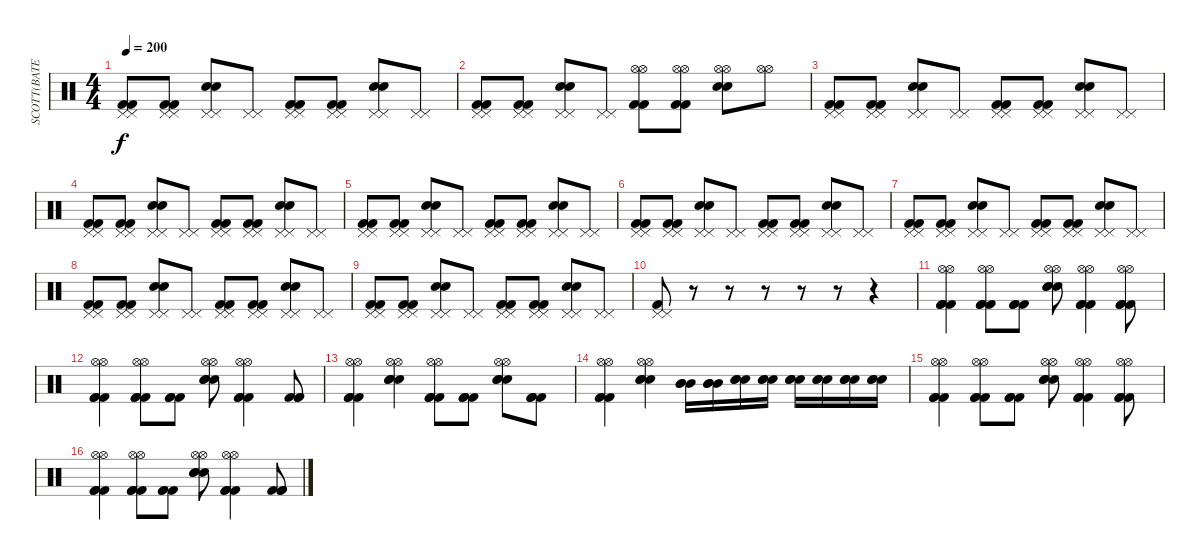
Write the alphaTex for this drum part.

\track ("SCOTT(BATERIA)" "SCOTT(BATE") {instrument percussion}
\staff {score}
\articulation defaults
\ts (4 4)
\tempo 200
\clef neutral
\ks c
("Kick (hit) 2" "Kick (hit) 2" "Pedal Hi-Hat (hit)" "Pedal Hi-Hat (hit)").8{dy f} ("Kick (hit) 2" "Kick (hit) 2" "Pedal Hi-Hat (hit)" "Pedal Hi-Hat (hit)").8 ("Snare (hit) 2" "Snare (hit) 2" "Pedal Hi-Hat (hit)" "Pedal Hi-Hat (hit)").8 ("Pedal Hi-Hat (hit)" "Pedal Hi-Hat (hit)").8 ("Kick (hit) 2" "Kick (hit) 2" "Pedal Hi-Hat (hit)" "Pedal Hi-Hat (hit)").8 ("Kick (hit) 2" "Kick (hit) 2" "Pedal Hi-Hat (hit)" "Pedal Hi-Hat (hit)").8 ("Snare (hit) 2" "Snare (hit) 2" "Pedal Hi-Hat (hit)" "Pedal Hi-Hat (hit)").8 ("Pedal Hi-Hat (hit)" "Pedal Hi-Hat (hit)").8 |
("Kick (hit) 2" "Kick (hit) 2" "Pedal Hi-Hat (hit)" "Pedal Hi-Hat (hit)").8 ("Kick (hit) 2" "Kick (hit) 2" "Pedal Hi-Hat (hit)" "Pedal Hi-Hat (hit)").8 ("Snare (hit) 2" "Snare (hit) 2" "Pedal Hi-Hat (hit)" "Pedal Hi-Hat (hit)").8 ("Pedal Hi-Hat (hit)" "Pedal Hi-Hat (hit)").8 ("Kick (hit) 2" "Kick (hit) 2" "Hi-Hat (open)" "Hi-Hat (open)").8 ("Kick (hit) 2" "Kick (hit) 2" "Hi-Hat (open)" "Hi-Hat (open)").8 ("Snare (hit) 2" "Snare (hit) 2" "Hi-Hat (open)" "Hi-Hat (open)").8 ("Hi-Hat (open)" "Hi-Hat (open)").8 |
("Kick (hit) 2" "Kick (hit) 2" "Pedal Hi-Hat (hit)" "Pedal Hi-Hat (hit)").8 ("Kick (hit) 2" "Kick (hit) 2" "Pedal Hi-Hat (hit)" "Pedal Hi-Hat (hit)").8 ("Snare (hit) 2" "Snare (hit) 2" "Pedal Hi-Hat (hit)" "Pedal Hi-Hat (hit)").8 ("Pedal Hi-Hat (hit)" "Pedal Hi-Hat (hit)").8 ("Kick (hit) 2" "Kick (hit) 2" "Pedal Hi-Hat (hit)" "Pedal Hi-Hat (hit)").8 ("Kick (hit) 2" "Kick (hit) 2" "Pedal Hi-Hat (hit)" "Pedal Hi-Hat (hit)").8 ("Snare (hit) 2" "Snare (hit) 2" "Pedal Hi-Hat (hit)" "Pedal Hi-Hat (hit)").8 ("Pedal Hi-Hat (hit)" "Pedal Hi-Hat (hit)").8 |
("Kick (hit) 2" "Kick (hit) 2" "Pedal Hi-Hat (hit)" "Pedal Hi-Hat (hit)").8 ("Kick (hit) 2" "Kick (hit) 2" "Pedal Hi-Hat (hit)" "Pedal Hi-Hat (hit)").8 ("Snare (hit) 2" "Snare (hit) 2" "Pedal Hi-Hat (hit)" "Pedal Hi-Hat (hit)").8 ("Pedal Hi-Hat (hit)" "Pedal Hi-Hat (hit)").8 ("Kick (hit) 2" "Kick (hit) 2" "Pedal Hi-Hat (hit)" "Pedal Hi-Hat (hit)").8 ("Kick (hit) 2" "Kick (hit) 2" "Pedal Hi-Hat (hit)" "Pedal Hi-Hat (hit)").8 ("Snare (hit) 2" "Snare (hit) 2" "Pedal Hi-Hat (hit)" "Pedal Hi-Hat (hit)").8 ("Pedal Hi-Hat (hit)" "Pedal Hi-Hat (hit)").8 |
("Kick (hit) 2" "Kick (hit) 2" "Pedal Hi-Hat (hit)" "Pedal Hi-Hat (hit)").8 ("Kick (hit) 2" "Kick (hit) 2" "Pedal Hi-Hat (hit)" "Pedal Hi-Hat (hit)").8 ("Snare (hit) 2" "Snare (hit) 2" "Pedal Hi-Hat (hit)" "Pedal Hi-Hat (hit)").8 ("Pedal Hi-Hat (hit)" "Pedal Hi-Hat (hit)").8 ("Kick (hit) 2" "Kick (hit) 2" "Pedal Hi-Hat (hit)" "Pedal Hi-Hat (hit)").8 ("Kick (hit) 2" "Kick (hit) 2" "Pedal Hi-Hat (hit)" "Pedal Hi-Hat (hit)").8 ("Snare (hit) 2" "Snare (hit) 2" "Pedal Hi-Hat (hit)" "Pedal Hi-Hat (hit)").8 ("Pedal Hi-Hat (hit)" "Pedal Hi-Hat (hit)").8 |
("Kick (hit) 2" "Kick (hit) 2" "Pedal Hi-Hat (hit)" "Pedal Hi-Hat (hit)").8 ("Kick (hit) 2" "Kick (hit) 2" "Pedal Hi-Hat (hit)" "Pedal Hi-Hat (hit)").8 ("Snare (hit) 2" "Snare (hit) 2" "Pedal Hi-Hat (hit)" "Pedal Hi-Hat (hit)").8 ("Pedal Hi-Hat (hit)" "Pedal Hi-Hat (hit)").8 ("Kick (hit) 2" "Kick (hit) 2" "Pedal Hi-Hat (hit)" "Pedal Hi-Hat (hit)").8 ("Kick (hit) 2" "Kick (hit) 2" "Pedal Hi-Hat (hit)" "Pedal Hi-Hat (hit)").8 ("Snare (hit) 2" "Snare (hit) 2" "Pedal Hi-Hat (hit)" "Pedal Hi-Hat (hit)").8 ("Pedal Hi-Hat (hit)" "Pedal Hi-Hat (hit)").8 |
("Kick (hit) 2" "Kick (hit) 2" "Pedal Hi-Hat (hit)" "Pedal Hi-Hat (hit)").8 ("Kick (hit) 2" "Kick (hit) 2" "Pedal Hi-Hat (hit)" "Pedal Hi-Hat (hit)").8 ("Snare (hit) 2" "Snare (hit) 2" "Pedal Hi-Hat (hit)" "Pedal Hi-Hat (hit)").8 ("Pedal Hi-Hat (hit)" "Pedal Hi-Hat (hit)").8 ("Kick (hit) 2" "Kick (hit) 2" "Pedal Hi-Hat (hit)" "Pedal Hi-Hat (hit)").8 ("Kick (hit) 2" "Kick (hit) 2" "Pedal Hi-Hat (hit)" "Pedal Hi-Hat (hit)").8 ("Snare (hit) 2" "Snare (hit) 2" "Pedal Hi-Hat (hit)" "Pedal Hi-Hat (hit)").8 ("Pedal Hi-Hat (hit)" "Pedal Hi-Hat (hit)").8 |
("Kick (hit) 2" "Kick (hit) 2" "Pedal Hi-Hat (hit)" "Pedal Hi-Hat (hit)").8 ("Kick (hit) 2" "Kick (hit) 2" "Pedal Hi-Hat (hit)" "Pedal Hi-Hat (hit)").8 ("Snare (hit) 2" "Snare (hit) 2" "Pedal Hi-Hat (hit)" "Pedal Hi-Hat (hit)").8 ("Pedal Hi-Hat (hit)" "Pedal Hi-Hat (hit)").8 ("Kick (hit) 2" "Kick (hit) 2" "Pedal Hi-Hat (hit)" "Pedal Hi-Hat (hit)").8 ("Kick (hit) 2" "Kick (hit) 2" "Pedal Hi-Hat (hit)" "Pedal Hi-Hat (hit)").8 ("Snare (hit) 2" "Snare (hit) 2" "Pedal Hi-Hat (hit)" "Pedal Hi-Hat (hit)").8 ("Pedal Hi-Hat (hit)" "Pedal Hi-Hat (hit)").8 |
("Kick (hit) 2" "Kick (hit) 2" "Pedal Hi-Hat (hit)" "Pedal Hi-Hat (hit)").8 ("Kick (hit) 2" "Kick (hit) 2" "Pedal Hi-Hat (hit)" "Pedal Hi-Hat (hit)").8 ("Snare (hit) 2" "Snare (hit) 2" "Pedal Hi-Hat (hit)" "Pedal Hi-Hat (hit)").8 ("Pedal Hi-Hat (hit)" "Pedal Hi-Hat (hit)").8 ("Kick (hit) 2" "Kick (hit) 2" "Pedal Hi-Hat (hit)" "Pedal Hi-Hat (hit)").8 ("Kick (hit) 2" "Kick (hit) 2" "Pedal Hi-Hat (hit)" "Pedal Hi-Hat (hit)").8 ("Snare (hit) 2" "Snare (hit) 2" "Pedal Hi-Hat (hit)" "Pedal Hi-Hat (hit)").8 ("Pedal Hi-Hat (hit)" "Pedal Hi-Hat (hit)").8 |
("Kick (hit) 2" "Pedal Hi-Hat (hit)" "Pedal Hi-Hat (hit)").8 r.8 r.8 r.8 r.8 r.8 r.4 |
("Kick (hit) 2" "Kick (hit) 2" "Kick (hit) 2" "Hi-Hat (open)" "Hi-Hat (open)").4 ("Kick (hit) 2" "Kick (hit) 2" "Kick (hit) 2" "Hi-Hat (open)" "Hi-Hat (open)").8 ("Kick (hit) 2" "Kick (hit) 2" "Kick (hit) 2").8 ("Snare (hit) 2" "Snare (hit) 2" "Snare (hit) 2" "Hi-Hat (open)" "Hi-Hat (open)").8 ("Kick (hit) 2" "Kick (hit) 2" "Kick (hit) 2" "Hi-Hat (open)" "Hi-Hat (open)").4 ("Kick (hit) 2" "Kick (hit) 2" "Kick (hit) 2" "Hi-Hat (open)" "Hi-Hat (open)").8 |
("Kick (hit) 2" "Kick (hit) 2" "Kick (hit) 2" "Hi-Hat (open)" "Hi-Hat (open)").4 ("Kick (hit) 2" "Kick (hit) 2" "Kick (hit) 2" "Hi-Hat (open)" "Hi-Hat (open)").8 ("Kick (hit) 2" "Kick (hit) 2" "Kick (hit) 2").8 ("Snare (hit) 2" "Snare (hit) 2" "Snare (hit) 2" "Hi-Hat (open)" "Hi-Hat (open)").8 ("Kick (hit) 2" "Kick (hit) 2" "Kick (hit) 2" "Hi-Hat (open)" "Hi-Hat (open)").4 ("Kick (hit) 2" "Kick (hit) 2" "Kick (hit) 2").8 |
("Kick (hit) 2" "Kick (hit) 2" "Kick (hit) 2" "Hi-Hat (open)" "Hi-Hat (open)").4 ("Snare (hit) 2" "Snare (hit) 2" "Snare (hit) 2" "Hi-Hat (open)" "Hi-Hat (open)").4 ("Kick (hit) 2" "Kick (hit) 2" "Kick (hit) 2" "Hi-Hat (open)" "Hi-Hat (open)").8 ("Kick (hit) 2" "Kick (hit) 2" "Kick (hit) 2").8 ("Snare (hit) 2" "Snare (hit) 2" "Snare (hit) 2" "Hi-Hat (open)" "Hi-Hat (open)").8 ("Kick (hit) 2" "Kick (hit) 2" "Kick (hit) 2").8 |
("Kick (hit) 2" "Kick (hit) 2" "Kick (hit) 2" "Hi-Hat (open)" "Hi-Hat (open)").4 ("Snare (hit) 2" "Snare (hit) 2" "Snare (hit) 2" "Hi-Hat (open)" "Hi-Hat (open)").4 ("Mid Tom (hit)" "Mid Tom (hit)" "Mid Tom (hit)").16 ("Mid Tom (hit)" "Mid Tom (hit)" "Mid Tom (hit)").16 ("Snare (hit) 2" "Snare (hit) 2" "Snare (hit) 2").16 ("Snare (hit) 2" "Snare (hit) 2" "Snare (hit) 2").16 ("Snare (hit) 2" "Snare (hit) 2" "Snare (hit) 2").16 ("Snare (hit) 2" "Snare (hit) 2" "Snare (hit) 2").16 ("Snare (hit) 2" "Snare (hit) 2" "Snare (hit) 2").16 ("Snare (hit) 2" "Snare (hit) 2" "Snare (hit) 2").16 |
("Kick (hit) 2" "Kick (hit) 2" "Kick (hit) 2" "Hi-Hat (open)" "Hi-Hat (open)").4 ("Kick (hit) 2" "Kick (hit) 2" "Kick (hit) 2" "Hi-Hat (open)" "Hi-Hat (open)").8 ("Kick (hit) 2" "Kick (hit) 2" "Kick (hit) 2").8 ("Snare (hit) 2" "Snare (hit) 2" "Snare (hit) 2" "Hi-Hat (open)" "Hi-Hat (open)").8 ("Kick (hit) 2" "Kick (hit) 2" "Kick (hit) 2" "Hi-Hat (open)" "Hi-Hat (open)").4 ("Kick (hit) 2" "Kick (hit) 2" "Kick (hit) 2" "Hi-Hat (open)" "Hi-Hat (open)").8 |
("Kick (hit) 2" "Kick (hit) 2" "Kick (hit) 2" "Hi-Hat (open)" "Hi-Hat (open)").4 ("Kick (hit) 2" "Kick (hit) 2" "Kick (hit) 2" "Hi-Hat (open)" "Hi-Hat (open)").8 ("Kick (hit) 2" "Kick (hit) 2" "Kick (hit) 2").8 ("Snare (hit) 2" "Snare (hit) 2" "Snare (hit) 2" "Hi-Hat (open)" "Hi-Hat (open)").8 ("Kick (hit) 2" "Kick (hit) 2" "Kick (hit) 2" "Hi-Hat (open)" "Hi-Hat (open)").4 ("Kick (hit) 2" "Kick (hit) 2" "Kick (hit) 2").8
